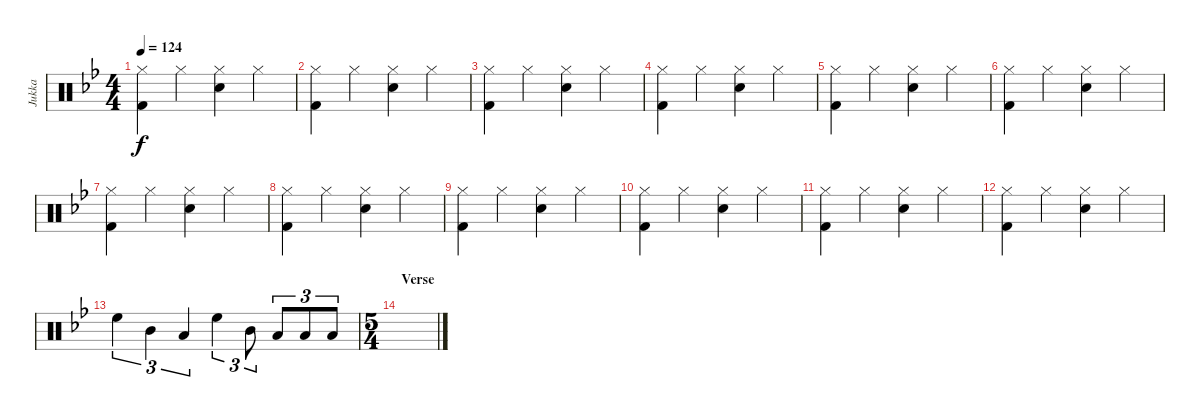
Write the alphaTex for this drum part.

\track ("Jukka" "Jukka") {instrument percussion}
\staff {score}
\articulation defaults
\ts (4 4)
\tempo 124
\clef neutral
\ks bb
("Hi-Hat (closed)" "Kick (hit) 2").4{dy f} "Hi-Hat (closed)".4 ("Hi-Hat (closed)" "Snare (hit) 2").4 "Hi-Hat (closed)".4 |
("Hi-Hat (closed)" "Kick (hit) 2").4 "Hi-Hat (closed)".4 ("Hi-Hat (closed)" "Snare (hit) 2").4 "Hi-Hat (closed)".4 |
("Hi-Hat (closed)" "Kick (hit) 2").4 "Hi-Hat (closed)".4 ("Hi-Hat (closed)" "Snare (hit) 2").4 "Hi-Hat (closed)".4 |
("Hi-Hat (closed)" "Kick (hit) 2").4 "Hi-Hat (closed)".4 ("Hi-Hat (closed)" "Snare (hit) 2").4 "Hi-Hat (closed)".4 |
("Hi-Hat (closed)" "Kick (hit) 2").4 "Hi-Hat (closed)".4 ("Hi-Hat (closed)" "Snare (hit) 2").4 "Hi-Hat (closed)".4 |
("Hi-Hat (closed)" "Kick (hit) 2").4 "Hi-Hat (closed)".4 ("Hi-Hat (closed)" "Snare (hit) 2").4 "Hi-Hat (closed)".4 |
("Hi-Hat (closed)" "Kick (hit) 2").4 "Hi-Hat (closed)".4 ("Hi-Hat (closed)" "Snare (hit) 2").4 "Hi-Hat (closed)".4 |
("Hi-Hat (closed)" "Kick (hit) 2").4 "Hi-Hat (closed)".4 ("Hi-Hat (closed)" "Snare (hit) 2").4 "Hi-Hat (closed)".4 |
("Hi-Hat (closed)" "Kick (hit) 2").4 "Hi-Hat (closed)".4 ("Hi-Hat (closed)" "Snare (hit) 2").4 "Hi-Hat (closed)".4 |
("Hi-Hat (closed)" "Kick (hit) 2").4 "Hi-Hat (closed)".4 ("Hi-Hat (closed)" "Snare (hit) 2").4 "Hi-Hat (closed)".4 |
("Hi-Hat (closed)" "Kick (hit) 2").4 "Hi-Hat (closed)".4 ("Hi-Hat (closed)" "Snare (hit) 2").4 "Hi-Hat (closed)".4 |
("Hi-Hat (closed)" "Kick (hit) 2").4 "Hi-Hat (closed)".4 ("Hi-Hat (closed)" "Snare (hit) 2").4 "Hi-Hat (closed)".4 |
"High Floor Tom (hit)".4{tu (3 2)} "Mid Tom (hit)".4{tu (3 2)} "Low Tom (hit)".4{tu (3 2)} "High Floor Tom (hit)".4{tu (3 2)} "Mid Tom (hit)".8{tu (3 2)} "Low Tom (hit)".8{tu (3 2)} "Low Tom (hit)".8{tu (3 2)} "Low Floor Tom (hit)".8{tu (3 2)} |
\ts (5 4)
\section ("" "Verse")
